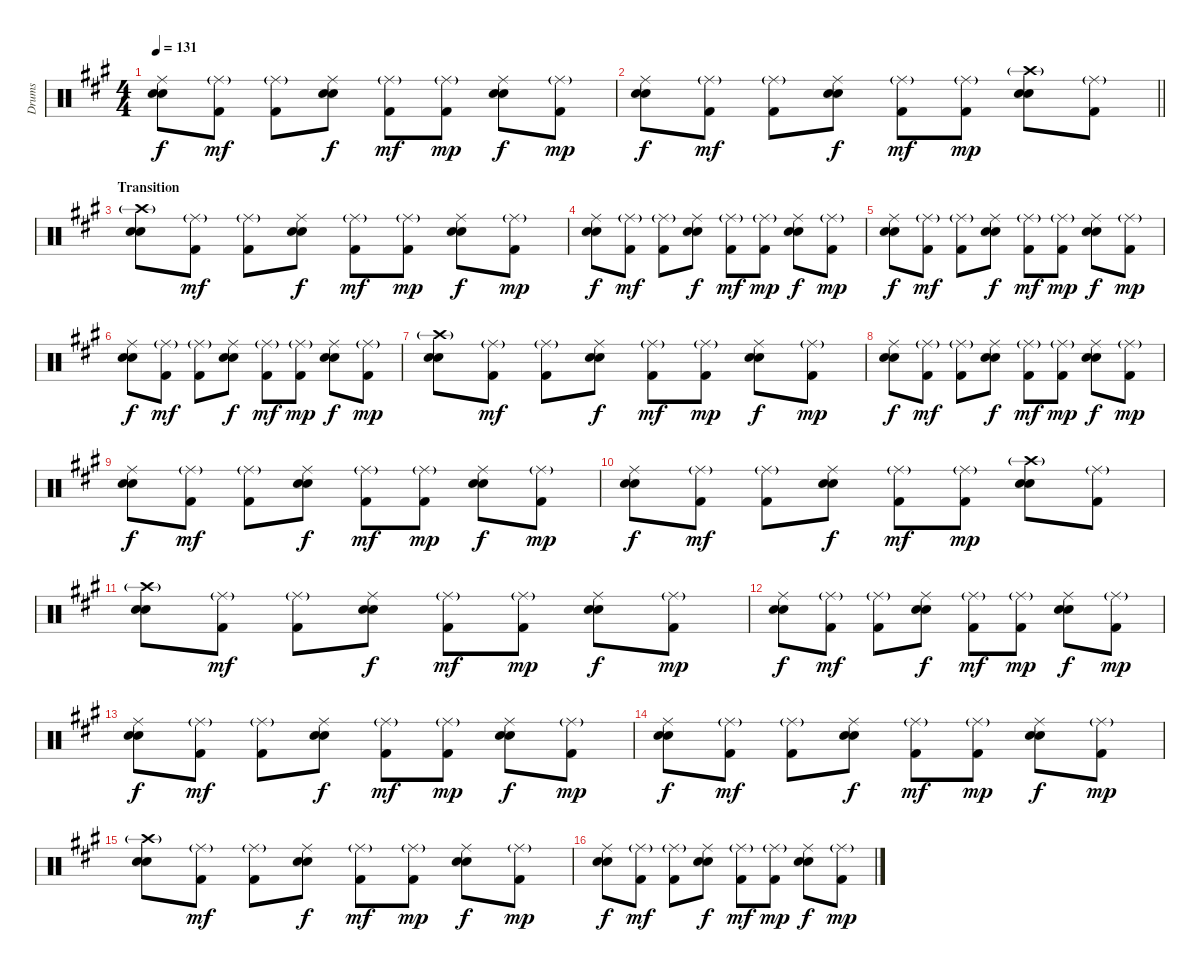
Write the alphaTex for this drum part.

\track ("Drums" "Drums") {instrument percussion}
\staff {score}
\articulation defaults
\ts (4 4)
\tempo 131
\clef neutral
\ks a
("Ride (middle)" "Electric Snare (hit)" "Snare (hit) 2").8{dy f} ("Ride (middle)"{g} "Kick (hit) 2").8{dy mf} ("Ride (middle)"{g} "Kick (hit) 2").8 ("Ride (middle)" "Electric Snare (hit)" "Snare (hit) 2").8{dy f} ("Ride (middle)"{g} "Kick (hit) 2").8{dy mf} ("Ride (middle)"{g} "Kick (hit) 2").8{dy mp} ("Ride (middle)" "Electric Snare (hit)" "Snare (hit) 2").8{dy f} ("Ride (middle)"{g} "Kick (hit) 2").8{dy mp} |
\barLineRight lightlight
("Ride (middle)" "Electric Snare (hit)" "Snare (hit) 2").8{dy f} ("Ride (middle)"{g} "Kick (hit) 2").8{dy mf} ("Ride (middle)"{g} "Kick (hit) 2").8 ("Ride (middle)" "Electric Snare (hit)" "Snare (hit) 2").8{dy f} ("Ride (middle)"{g} "Kick (hit) 2").8{dy mf} ("Ride (middle)"{g} "Kick (hit) 2").8{dy mp} ("Crash high (hit)"{g} "Electric Snare (hit)" "Snare (hit) 2").8 ("Ride (middle)"{g} "Kick (hit) 2").8 |
\section ("" "Transition")
("Crash high (hit)"{g} "Electric Snare (hit)" "Snare (hit) 2").8 ("Ride (middle)"{g} "Kick (hit) 2").8{dy mf} ("Ride (middle)"{g} "Kick (hit) 2").8 ("Ride (middle)" "Electric Snare (hit)" "Snare (hit) 2").8{dy f} ("Ride (middle)"{g} "Kick (hit) 2").8{dy mf} ("Ride (middle)"{g} "Kick (hit) 2").8{dy mp} ("Ride (middle)" "Electric Snare (hit)" "Snare (hit) 2").8{dy f} ("Ride (middle)"{g} "Kick (hit) 2").8{dy mp} |
("Ride (middle)" "Electric Snare (hit)" "Snare (hit) 2").8{dy f} ("Ride (middle)"{g} "Kick (hit) 2").8{dy mf} ("Ride (middle)"{g} "Kick (hit) 2").8 ("Ride (middle)" "Electric Snare (hit)" "Snare (hit) 2").8{dy f} ("Ride (middle)"{g} "Kick (hit) 2").8{dy mf} ("Ride (middle)"{g} "Kick (hit) 2").8{dy mp} ("Ride (middle)" "Electric Snare (hit)" "Snare (hit) 2").8{dy f} ("Ride (middle)"{g} "Kick (hit) 2").8{dy mp} |
("Ride (middle)" "Electric Snare (hit)" "Snare (hit) 2").8{dy f} ("Ride (middle)"{g} "Kick (hit) 2").8{dy mf} ("Ride (middle)"{g} "Kick (hit) 2").8 ("Ride (middle)" "Electric Snare (hit)" "Snare (hit) 2").8{dy f} ("Ride (middle)"{g} "Kick (hit) 2").8{dy mf} ("Ride (middle)"{g} "Kick (hit) 2").8{dy mp} ("Ride (middle)" "Electric Snare (hit)" "Snare (hit) 2").8{dy f} ("Ride (middle)"{g} "Kick (hit) 2").8{dy mp} |
("Ride (middle)" "Electric Snare (hit)" "Snare (hit) 2").8{dy f} ("Ride (middle)"{g} "Kick (hit) 2").8{dy mf} ("Ride (middle)"{g} "Kick (hit) 2").8 ("Ride (middle)" "Electric Snare (hit)" "Snare (hit) 2").8{dy f} ("Ride (middle)"{g} "Kick (hit) 2").8{dy mf} ("Ride (middle)"{g} "Kick (hit) 2").8{dy mp} ("Ride (middle)" "Electric Snare (hit)" "Snare (hit) 2").8{dy f} ("Ride (middle)"{g} "Kick (hit) 2").8{dy mp} |
("Crash high (hit)"{g} "Electric Snare (hit)" "Snare (hit) 2").8 ("Ride (middle)"{g} "Kick (hit) 2").8{dy mf} ("Ride (middle)"{g} "Kick (hit) 2").8 ("Ride (middle)" "Electric Snare (hit)" "Snare (hit) 2").8{dy f} ("Ride (middle)"{g} "Kick (hit) 2").8{dy mf} ("Ride (middle)"{g} "Kick (hit) 2").8{dy mp} ("Ride (middle)" "Electric Snare (hit)" "Snare (hit) 2").8{dy f} ("Ride (middle)"{g} "Kick (hit) 2").8{dy mp} |
("Ride (middle)" "Electric Snare (hit)" "Snare (hit) 2").8{dy f} ("Ride (middle)"{g} "Kick (hit) 2").8{dy mf} ("Ride (middle)"{g} "Kick (hit) 2").8 ("Ride (middle)" "Electric Snare (hit)" "Snare (hit) 2").8{dy f} ("Ride (middle)"{g} "Kick (hit) 2").8{dy mf} ("Ride (middle)"{g} "Kick (hit) 2").8{dy mp} ("Ride (middle)" "Electric Snare (hit)" "Snare (hit) 2").8{dy f} ("Ride (middle)"{g} "Kick (hit) 2").8{dy mp} |
("Ride (middle)" "Electric Snare (hit)" "Snare (hit) 2").8{dy f} ("Ride (middle)"{g} "Kick (hit) 2").8{dy mf} ("Ride (middle)"{g} "Kick (hit) 2").8 ("Ride (middle)" "Electric Snare (hit)" "Snare (hit) 2").8{dy f} ("Ride (middle)"{g} "Kick (hit) 2").8{dy mf} ("Ride (middle)"{g} "Kick (hit) 2").8{dy mp} ("Ride (middle)" "Electric Snare (hit)" "Snare (hit) 2").8{dy f} ("Ride (middle)"{g} "Kick (hit) 2").8{dy mp} |
("Ride (middle)" "Electric Snare (hit)" "Snare (hit) 2").8{dy f} ("Ride (middle)"{g} "Kick (hit) 2").8{dy mf} ("Ride (middle)"{g} "Kick (hit) 2").8 ("Ride (middle)" "Electric Snare (hit)" "Snare (hit) 2").8{dy f} ("Ride (middle)"{g} "Kick (hit) 2").8{dy mf} ("Ride (middle)"{g} "Kick (hit) 2").8{dy mp} ("Crash high (hit)"{g} "Electric Snare (hit)" "Snare (hit) 2").8 ("Ride (middle)"{g} "Kick (hit) 2").8 |
("Crash high (hit)"{g} "Electric Snare (hit)" "Snare (hit) 2").8 ("Ride (middle)"{g} "Kick (hit) 2").8{dy mf} ("Ride (middle)"{g} "Kick (hit) 2").8 ("Ride (middle)" "Electric Snare (hit)" "Snare (hit) 2").8{dy f} ("Ride (middle)"{g} "Kick (hit) 2").8{dy mf} ("Ride (middle)"{g} "Kick (hit) 2").8{dy mp} ("Ride (middle)" "Electric Snare (hit)" "Snare (hit) 2").8{dy f} ("Ride (middle)"{g} "Kick (hit) 2").8{dy mp} |
("Ride (middle)" "Electric Snare (hit)" "Snare (hit) 2").8{dy f} ("Ride (middle)"{g} "Kick (hit) 2").8{dy mf} ("Ride (middle)"{g} "Kick (hit) 2").8 ("Ride (middle)" "Electric Snare (hit)" "Snare (hit) 2").8{dy f} ("Ride (middle)"{g} "Kick (hit) 2").8{dy mf} ("Ride (middle)"{g} "Kick (hit) 2").8{dy mp} ("Ride (middle)" "Electric Snare (hit)" "Snare (hit) 2").8{dy f} ("Ride (middle)"{g} "Kick (hit) 2").8{dy mp} |
("Ride (middle)" "Electric Snare (hit)" "Snare (hit) 2").8{dy f} ("Ride (middle)"{g} "Kick (hit) 2").8{dy mf} ("Ride (middle)"{g} "Kick (hit) 2").8 ("Ride (middle)" "Electric Snare (hit)" "Snare (hit) 2").8{dy f} ("Ride (middle)"{g} "Kick (hit) 2").8{dy mf} ("Ride (middle)"{g} "Kick (hit) 2").8{dy mp} ("Ride (middle)" "Electric Snare (hit)" "Snare (hit) 2").8{dy f} ("Ride (middle)"{g} "Kick (hit) 2").8{dy mp} |
("Ride (middle)" "Electric Snare (hit)" "Snare (hit) 2").8{dy f} ("Ride (middle)"{g} "Kick (hit) 2").8{dy mf} ("Ride (middle)"{g} "Kick (hit) 2").8 ("Ride (middle)" "Electric Snare (hit)" "Snare (hit) 2").8{dy f} ("Ride (middle)"{g} "Kick (hit) 2").8{dy mf} ("Ride (middle)"{g} "Kick (hit) 2").8{dy mp} ("Ride (middle)" "Electric Snare (hit)" "Snare (hit) 2").8{dy f} ("Ride (middle)"{g} "Kick (hit) 2").8{dy mp} |
("Crash high (hit)"{g} "Electric Snare (hit)" "Snare (hit) 2").8 ("Ride (middle)"{g} "Kick (hit) 2").8{dy mf} ("Ride (middle)"{g} "Kick (hit) 2").8 ("Ride (middle)" "Electric Snare (hit)" "Snare (hit) 2").8{dy f} ("Ride (middle)"{g} "Kick (hit) 2").8{dy mf} ("Ride (middle)"{g} "Kick (hit) 2").8{dy mp} ("Ride (middle)" "Electric Snare (hit)" "Snare (hit) 2").8{dy f} ("Ride (middle)"{g} "Kick (hit) 2").8{dy mp} |
("Ride (middle)" "Electric Snare (hit)" "Snare (hit) 2").8{dy f} ("Ride (middle)"{g} "Kick (hit) 2").8{dy mf} ("Ride (middle)"{g} "Kick (hit) 2").8 ("Ride (middle)" "Electric Snare (hit)" "Snare (hit) 2").8{dy f} ("Ride (middle)"{g} "Kick (hit) 2").8{dy mf} ("Ride (middle)"{g} "Kick (hit) 2").8{dy mp} ("Ride (middle)" "Electric Snare (hit)" "Snare (hit) 2").8{dy f} ("Ride (middle)"{g} "Kick (hit) 2").8{dy mp}
